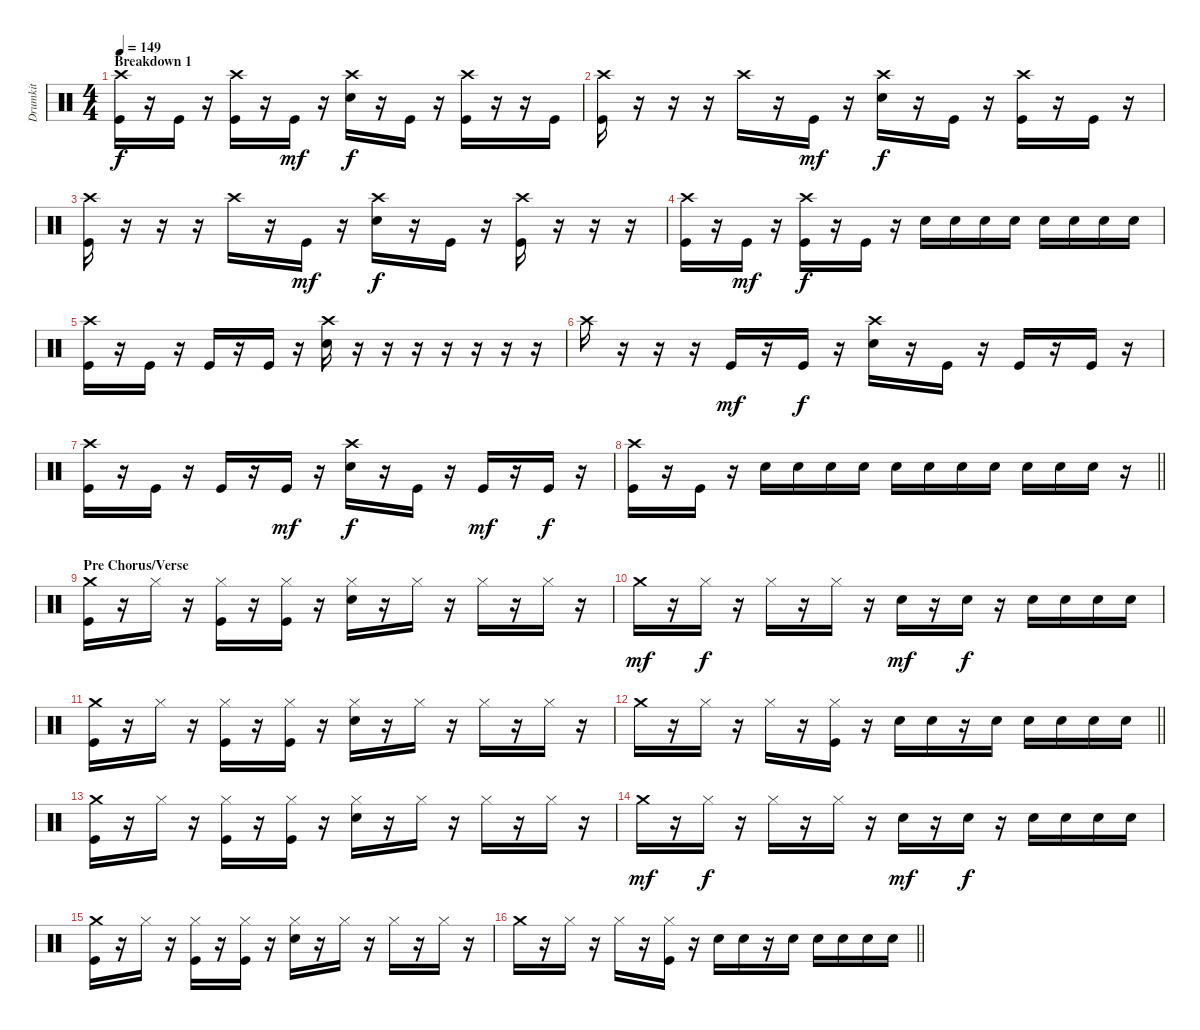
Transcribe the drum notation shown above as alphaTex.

\track ("Drumkit" "Drumkit") {instrument percussion}
\staff {score}
\articulation defaults
\ts (4 4)
\section ("" "Breakdown 1")
\tempo 149
\clef neutral
\ks c
("Crash high (hit)" "Kick (hit)").16{dy f} r.16 "Kick (hit)".16 r.16 ("Crash high (hit)" "Kick (hit)").16 r.16 "Kick (hit)".16{dy mf} r.16 ("Crash high (hit)" "Snare (hit) 2").16{dy f} r.16 "Kick (hit)".16 r.16 ("Crash high (hit)" "Kick (hit)").16 r.16 r.16 "Kick (hit)".16 |
("Crash high (hit)" "Kick (hit)").16 r.16 r.16 r.16 "Crash high (hit)".16 r.16 "Kick (hit)".16{dy mf} r.16 ("Crash high (hit)" "Snare (hit) 2").16{dy f} r.16 "Kick (hit)".16 r.16 ("Crash high (hit)" "Kick (hit)").16 r.16 "Kick (hit)".16 r.16 |
("Crash high (hit)" "Kick (hit)").16 r.16 r.16 r.16 "Crash high (hit)".16 r.16 "Kick (hit)".16{dy mf} r.16 ("Crash high (hit)" "Snare (hit) 2").16{dy f} r.16 "Kick (hit)".16 r.16 ("Crash high (hit)" "Kick (hit)").16 r.16 r.16 r.16 |
("Crash high (hit)" "Kick (hit)").16 r.16 "Kick (hit)".16{dy mf} r.16 ("Crash high (hit)" "Kick (hit)").16{dy f} r.16 "Kick (hit)".16 r.16 "Snare (hit) 2".16 "Snare (hit) 2".16 "Snare (hit) 2".16 "Snare (hit) 2".16 "Snare (hit) 2".16 "Snare (hit) 2".16 "Snare (hit) 2".16 "Snare (hit) 2".16 |
("Crash high (hit)" "Kick (hit)").16 r.16 "Kick (hit)".16 r.16 "Kick (hit)".16 r.16 "Kick (hit)".16 r.16 ("Crash high (hit)" "Snare (hit) 2").16 r.16 r.16 r.16 r.16 r.16 r.16 r.16 |
"Crash high (hit)".16 r.16 r.16 r.16 "Kick (hit)".16{dy mf} r.16 "Kick (hit)".16{dy f} r.16 ("Crash high (hit)" "Snare (hit) 2").16 r.16 "Kick (hit)".16 r.16 "Kick (hit)".16 r.16 "Kick (hit)".16 r.16 |
("Crash high (hit)" "Kick (hit)").16 r.16 "Kick (hit)".16 r.16 "Kick (hit)".16 r.16 "Kick (hit)".16{dy mf} r.16 ("Crash high (hit)" "Snare (hit) 2").16{dy f} r.16 "Kick (hit)".16 r.16 "Kick (hit)".16{dy mf} r.16 "Kick (hit)".16{dy f} r.16 |
\barLineRight lightlight
("Crash high (hit)" "Kick (hit)").16 r.16 "Kick (hit)".16 r.16 "Snare (hit) 2".16 "Snare (hit) 2".16 "Snare (hit) 2".16 "Snare (hit) 2".16 "Snare (hit) 2".16 "Snare (hit) 2".16 "Snare (hit) 2".16 "Snare (hit) 2".16 "Snare (hit) 2".16 "Snare (hit) 2".16 "Snare (hit) 2".16 r.16 |
\section ("" "Pre Chorus/Verse")
("Kick (hit)" "Crash medium (hit)").16 r.16 "Hi-Hat (closed)".16 r.16 ("Hi-Hat (closed)" "Kick (hit)").16 r.16 ("Hi-Hat (closed)" "Kick (hit)").16 r.16 ("Hi-Hat (closed)" "Snare (hit) 2").16 r.16 "Hi-Hat (closed)".16 r.16 "Hi-Hat (closed)".16 r.16 "Hi-Hat (closed)".16 r.16 |
"Crash medium (hit)".16{dy mf} r.16 "Hi-Hat (closed)".16{dy f} r.16 "Hi-Hat (closed)".16 r.16 "Hi-Hat (closed)".16 r.16 "Snare (hit) 2".16{dy mf} r.16 "Snare (hit) 2".16{dy f} r.16 "Snare (hit) 2".16 "Snare (hit) 2".16 "Snare (hit) 2".16 "Snare (hit) 2".16 |
("Kick (hit)" "Crash medium (hit)").16 r.16 "Hi-Hat (closed)".16 r.16 ("Hi-Hat (closed)" "Kick (hit)").16 r.16 ("Hi-Hat (closed)" "Kick (hit)").16 r.16 ("Hi-Hat (closed)" "Snare (hit) 2").16 r.16 "Hi-Hat (closed)".16 r.16 "Hi-Hat (closed)".16 r.16 "Hi-Hat (closed)".16 r.16 |
\barLineRight lightlight "Crash medium (hit)".16
r.16 "Hi-Hat (closed)".16 r.16 "Hi-Hat (closed)".16 r.16 ("Hi-Hat (closed)" "Kick (hit)").16 r.16 "Snare (hit) 2".16 "Snare (hit) 2".16 r.16 "Snare (hit) 2".16 "Snare (hit) 2".16 "Snare (hit) 2".16 "Snare (hit) 2".16 "Snare (hit) 2".16 |
("Kick (hit)" "Crash medium (hit)").16 r.16 "Hi-Hat (closed)".16 r.16 ("Hi-Hat (closed)" "Kick (hit)").16 r.16 ("Hi-Hat (closed)" "Kick (hit)").16 r.16 ("Hi-Hat (closed)" "Snare (hit) 2").16 r.16 "Hi-Hat (closed)".16 r.16 "Hi-Hat (closed)".16 r.16 "Hi-Hat (closed)".16 r.16 |
"Crash medium (hit)".16{dy mf} r.16 "Hi-Hat (closed)".16{dy f} r.16 "Hi-Hat (closed)".16 r.16 "Hi-Hat (closed)".16 r.16 "Snare (hit) 2".16{dy mf} r.16 "Snare (hit) 2".16{dy f} r.16 "Snare (hit) 2".16 "Snare (hit) 2".16 "Snare (hit) 2".16 "Snare (hit) 2".16 |
("Kick (hit)" "Crash medium (hit)").16 r.16 "Hi-Hat (closed)".16 r.16 ("Hi-Hat (closed)" "Kick (hit)").16 r.16 ("Hi-Hat (closed)" "Kick (hit)").16 r.16 ("Hi-Hat (closed)" "Snare (hit) 2").16 r.16 "Hi-Hat (closed)".16 r.16 "Hi-Hat (closed)".16 r.16 "Hi-Hat (closed)".16 r.16 |
\barLineRight lightlight "Crash medium (hit)".16
r.16 "Hi-Hat (closed)".16 r.16 "Hi-Hat (closed)".16 r.16 ("Hi-Hat (closed)" "Kick (hit)").16 r.16 "Snare (hit) 2".16 "Snare (hit) 2".16 r.16 "Snare (hit) 2".16 "Snare (hit) 2".16 "Snare (hit) 2".16 "Snare (hit) 2".16 "Snare (hit) 2".16
